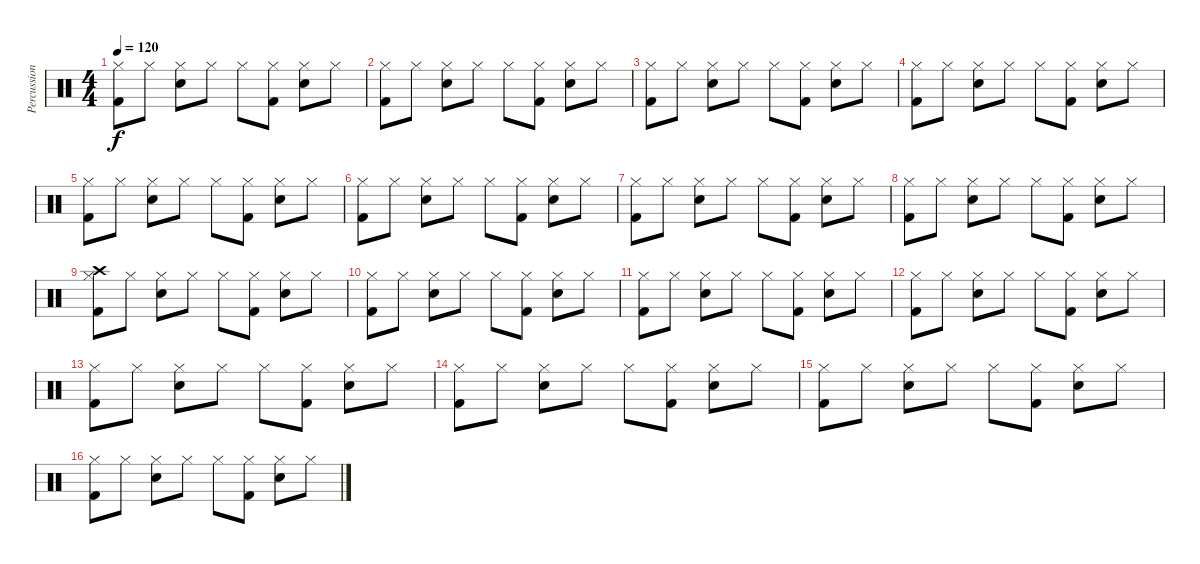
\track ("Percussion" "Percussion") {instrument percussion}
\staff {score}
\articulation defaults
\ts (4 4)
\tempo 120
\clef neutral
\ks c
("Hi-Hat (closed)" "Kick (hit) 2").8{dy f} "Hi-Hat (closed)".8 ("Hi-Hat (closed)" "Electric Snare (hit)").8 "Hi-Hat (closed)".8 "Hi-Hat (closed)".8 ("Hi-Hat (closed)" "Kick (hit) 2").8 ("Hi-Hat (closed)" "Electric Snare (hit)").8 "Hi-Hat (closed)".8 |
("Hi-Hat (closed)" "Kick (hit) 2").8 "Hi-Hat (closed)".8 ("Hi-Hat (closed)" "Electric Snare (hit)").8 "Hi-Hat (closed)".8 "Hi-Hat (closed)".8 ("Hi-Hat (closed)" "Kick (hit) 2").8 ("Hi-Hat (closed)" "Electric Snare (hit)").8 "Hi-Hat (closed)".8 |
("Hi-Hat (closed)" "Kick (hit) 2").8 "Hi-Hat (closed)".8 ("Hi-Hat (closed)" "Electric Snare (hit)").8 "Hi-Hat (closed)".8 "Hi-Hat (closed)".8 ("Hi-Hat (closed)" "Kick (hit) 2").8 ("Hi-Hat (closed)" "Electric Snare (hit)").8 "Hi-Hat (closed)".8 |
("Hi-Hat (closed)" "Kick (hit) 2").8 "Hi-Hat (closed)".8 ("Hi-Hat (closed)" "Electric Snare (hit)").8 "Hi-Hat (closed)".8 "Hi-Hat (closed)".8 ("Hi-Hat (closed)" "Kick (hit) 2").8 ("Hi-Hat (closed)" "Electric Snare (hit)").8 "Hi-Hat (closed)".8 |
("Hi-Hat (closed)" "Kick (hit) 2").8 "Hi-Hat (closed)".8 ("Hi-Hat (closed)" "Electric Snare (hit)").8 "Hi-Hat (closed)".8 "Hi-Hat (closed)".8 ("Hi-Hat (closed)" "Kick (hit) 2").8 ("Hi-Hat (closed)" "Electric Snare (hit)").8 "Hi-Hat (closed)".8 |
("Hi-Hat (closed)" "Kick (hit) 2").8 "Hi-Hat (closed)".8 ("Hi-Hat (closed)" "Electric Snare (hit)").8 "Hi-Hat (closed)".8 "Hi-Hat (closed)".8 ("Hi-Hat (closed)" "Kick (hit) 2").8 ("Hi-Hat (closed)" "Electric Snare (hit)").8 "Hi-Hat (closed)".8 |
("Hi-Hat (closed)" "Kick (hit) 2").8 "Hi-Hat (closed)".8 ("Hi-Hat (closed)" "Electric Snare (hit)").8 "Hi-Hat (closed)".8 "Hi-Hat (closed)".8 ("Hi-Hat (closed)" "Kick (hit) 2").8 ("Hi-Hat (closed)" "Electric Snare (hit)").8 "Hi-Hat (closed)".8 |
("Hi-Hat (closed)" "Kick (hit) 2").8 "Hi-Hat (closed)".8 ("Hi-Hat (closed)" "Electric Snare (hit)").8 "Hi-Hat (closed)".8 "Hi-Hat (closed)".8 ("Hi-Hat (closed)" "Kick (hit) 2").8 ("Hi-Hat (closed)" "Electric Snare (hit)").8 "Hi-Hat (closed)".8 |
("Hi-Hat (closed)" "Crash high (hit)" "Kick (hit) 2").8 "Hi-Hat (closed)".8 ("Hi-Hat (closed)" "Electric Snare (hit)").8 "Hi-Hat (closed)".8 "Hi-Hat (closed)".8 ("Hi-Hat (closed)" "Kick (hit) 2").8 ("Hi-Hat (closed)" "Electric Snare (hit)").8 "Hi-Hat (closed)".8 |
("Hi-Hat (closed)" "Kick (hit) 2").8 "Hi-Hat (closed)".8 ("Hi-Hat (closed)" "Electric Snare (hit)").8 "Hi-Hat (closed)".8 "Hi-Hat (closed)".8 ("Hi-Hat (closed)" "Kick (hit) 2").8 ("Hi-Hat (closed)" "Electric Snare (hit)").8 "Hi-Hat (closed)".8 |
("Hi-Hat (closed)" "Kick (hit) 2").8 "Hi-Hat (closed)".8 ("Hi-Hat (closed)" "Electric Snare (hit)").8 "Hi-Hat (closed)".8 "Hi-Hat (closed)".8 ("Hi-Hat (closed)" "Kick (hit) 2").8 ("Hi-Hat (closed)" "Electric Snare (hit)").8 "Hi-Hat (closed)".8 |
("Hi-Hat (closed)" "Kick (hit) 2").8 "Hi-Hat (closed)".8 ("Hi-Hat (closed)" "Electric Snare (hit)").8 "Hi-Hat (closed)".8 "Hi-Hat (closed)".8 ("Hi-Hat (closed)" "Kick (hit) 2").8 ("Hi-Hat (closed)" "Electric Snare (hit)").8 "Hi-Hat (closed)".8 |
("Hi-Hat (closed)" "Kick (hit) 2").8 "Hi-Hat (closed)".8 ("Hi-Hat (closed)" "Electric Snare (hit)").8 "Hi-Hat (closed)".8 "Hi-Hat (closed)".8 ("Hi-Hat (closed)" "Kick (hit) 2").8 ("Hi-Hat (closed)" "Electric Snare (hit)").8 "Hi-Hat (closed)".8 |
("Hi-Hat (closed)" "Kick (hit) 2").8 "Hi-Hat (closed)".8 ("Hi-Hat (closed)" "Electric Snare (hit)").8 "Hi-Hat (closed)".8 "Hi-Hat (closed)".8 ("Hi-Hat (closed)" "Kick (hit) 2").8 ("Hi-Hat (closed)" "Electric Snare (hit)").8 "Hi-Hat (closed)".8 |
("Hi-Hat (closed)" "Kick (hit) 2").8 "Hi-Hat (closed)".8 ("Hi-Hat (closed)" "Electric Snare (hit)").8 "Hi-Hat (closed)".8 "Hi-Hat (closed)".8 ("Hi-Hat (closed)" "Kick (hit) 2").8 ("Hi-Hat (closed)" "Electric Snare (hit)").8 "Hi-Hat (closed)".8 |
("Hi-Hat (closed)" "Kick (hit) 2").8 "Hi-Hat (closed)".8 ("Hi-Hat (closed)" "Electric Snare (hit)").8 "Hi-Hat (closed)".8 "Hi-Hat (closed)".8 ("Hi-Hat (closed)" "Kick (hit) 2").8 ("Hi-Hat (closed)" "Electric Snare (hit)").8 "Hi-Hat (closed)".8
